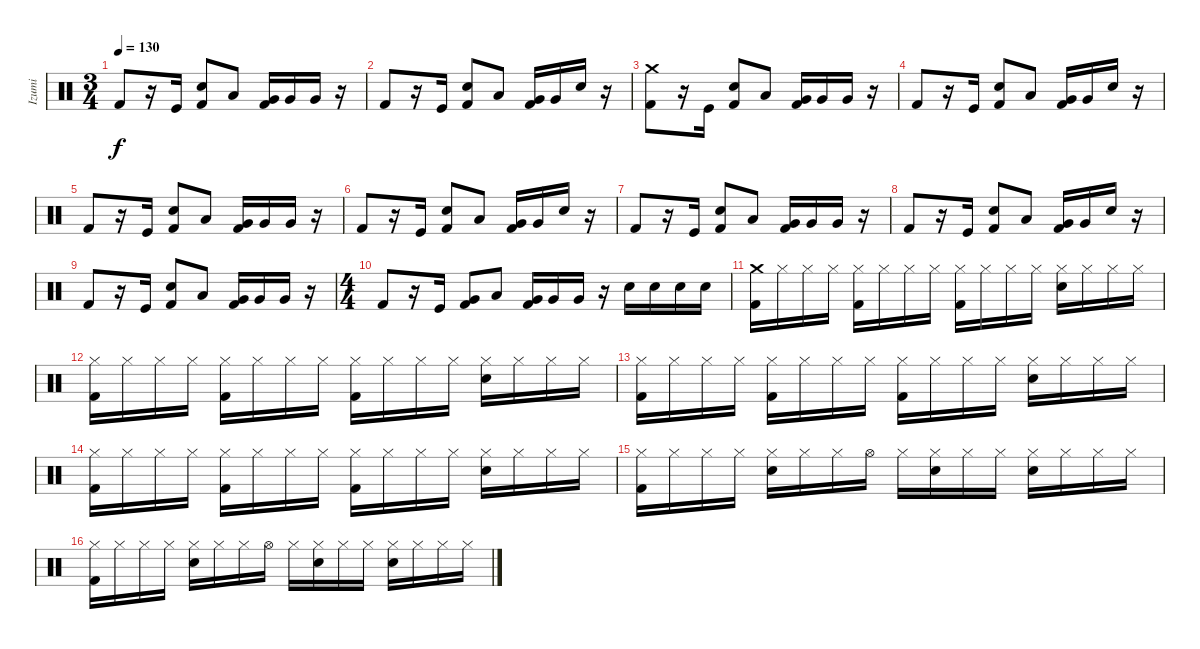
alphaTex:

\track ("Izumi" "Izumi") {instrument percussion}
\staff {score}
\articulation defaults
\ts (3 4)
\tempo 130
\clef neutral
\ks c "Kick (hit) 2".8{dy f}
r.16 "Kick (hit)".16 ("Kick (hit) 2" "Snare (hit) 2").8 "Low Tom (hit)".8 ("Kick (hit) 2" "Very Low Tom (hit)").16 "Very Low Tom (hit)".16 "Very Low Tom (hit)".16 r.16 |
"Kick (hit) 2".8 r.16 "Kick (hit)".16 ("Kick (hit) 2" "Snare (hit) 2").8 "Low Tom (hit)".8 ("Kick (hit) 2" "Very Low Tom (hit)").16 "Very Low Tom (hit)".16 "Snare (hit) 2".16 r.16 |
("Kick (hit) 2" "Crash medium (hit)").8 r.16 "Kick (hit)".16 ("Kick (hit) 2" "Snare (hit) 2").8 "Low Tom (hit)".8 ("Kick (hit) 2" "Very Low Tom (hit)").16 "Very Low Tom (hit)".16 "Very Low Tom (hit)".16 r.16 |
"Kick (hit) 2".8 r.16 "Kick (hit)".16 ("Kick (hit) 2" "Snare (hit) 2").8 "Low Tom (hit)".8 ("Kick (hit) 2" "Very Low Tom (hit)").16 "Very Low Tom (hit)".16 "Snare (hit) 2".16 r.16 |
"Kick (hit) 2".8 r.16 "Kick (hit)".16 ("Kick (hit) 2" "Snare (hit) 2").8 "Low Tom (hit)".8 ("Kick (hit) 2" "Very Low Tom (hit)").16 "Very Low Tom (hit)".16 "Very Low Tom (hit)".16 r.16 |
"Kick (hit) 2".8 r.16 "Kick (hit)".16 ("Kick (hit) 2" "Snare (hit) 2").8 "Low Tom (hit)".8 ("Kick (hit) 2" "Very Low Tom (hit)").16 "Very Low Tom (hit)".16 "Snare (hit) 2".16 r.16 |
"Kick (hit) 2".8 r.16 "Kick (hit)".16 ("Kick (hit) 2" "Snare (hit) 2").8 "Low Tom (hit)".8 ("Kick (hit) 2" "Very Low Tom (hit)").16 "Very Low Tom (hit)".16 "Very Low Tom (hit)".16 r.16 |
"Kick (hit) 2".8 r.16 "Kick (hit)".16 ("Kick (hit) 2" "Snare (hit) 2").8 "Low Tom (hit)".8 ("Kick (hit) 2" "Very Low Tom (hit)").16 "Very Low Tom (hit)".16 "Snare (hit) 2".16 r.16 |
"Kick (hit) 2".8 r.16 "Kick (hit)".16 ("Kick (hit) 2" "Snare (hit) 2").8 "Low Tom (hit)".8 ("Kick (hit) 2" "Very Low Tom (hit)").16 "Very Low Tom (hit)".16 "Very Low Tom (hit)".16 r.16 |
\ts (4 4)
"Kick (hit) 2".8 r.16 "Kick (hit)".16 ("Kick (hit) 2" "Very Low Tom (hit)").8 "Low Tom (hit)".8 ("Kick (hit) 2" "Very Low Tom (hit)").16 "Very Low Tom (hit)".16 "Very Low Tom (hit)".16 r.16 "Snare (hit) 2".16 "Snare (hit) 2".16 "Snare (hit) 2".16 "Snare (hit) 2".16 |
("Kick (hit) 2" "Crash medium (hit)").16 "Hi-Hat (closed)".16 "Hi-Hat (closed)".16 "Hi-Hat (closed)".16 ("Kick (hit) 2" "Hi-Hat (closed)").16 "Hi-Hat (closed)".16 "Hi-Hat (closed)".16 "Hi-Hat (closed)".16 ("Kick (hit) 2" "Hi-Hat (closed)").16 "Hi-Hat (closed)".16 "Hi-Hat (closed)".16 "Hi-Hat (closed)".16 ("Snare (hit) 2" "Hi-Hat (closed)").16 "Hi-Hat (closed)".16 "Hi-Hat (closed)".16 "Hi-Hat (closed)".16 |
("Kick (hit) 2" "Hi-Hat (closed)").16 "Hi-Hat (closed)".16 "Hi-Hat (closed)".16 "Hi-Hat (closed)".16 ("Kick (hit) 2" "Hi-Hat (closed)").16 "Hi-Hat (closed)".16 "Hi-Hat (closed)".16 "Hi-Hat (closed)".16 ("Kick (hit) 2" "Hi-Hat (closed)").16 "Hi-Hat (closed)".16 "Hi-Hat (closed)".16 "Hi-Hat (closed)".16 ("Snare (hit) 2" "Hi-Hat (closed)").16 "Hi-Hat (closed)".16 "Hi-Hat (closed)".16 "Hi-Hat (closed)".16 |
("Kick (hit) 2" "Hi-Hat (closed)").16 "Hi-Hat (closed)".16 "Hi-Hat (closed)".16 "Hi-Hat (closed)".16 ("Kick (hit) 2" "Hi-Hat (closed)").16 "Hi-Hat (closed)".16 "Hi-Hat (closed)".16 "Hi-Hat (closed)".16 ("Kick (hit) 2" "Hi-Hat (closed)").16 "Hi-Hat (closed)".16 "Hi-Hat (closed)".16 "Hi-Hat (closed)".16 ("Snare (hit) 2" "Hi-Hat (closed)").16 "Hi-Hat (closed)".16 "Hi-Hat (closed)".16 "Hi-Hat (closed)".16 |
("Kick (hit) 2" "Hi-Hat (closed)").16 "Hi-Hat (closed)".16 "Hi-Hat (closed)".16 "Hi-Hat (closed)".16 ("Kick (hit) 2" "Hi-Hat (closed)").16 "Hi-Hat (closed)".16 "Hi-Hat (closed)".16 "Hi-Hat (closed)".16 ("Kick (hit) 2" "Hi-Hat (closed)").16 "Hi-Hat (closed)".16 "Hi-Hat (closed)".16 "Hi-Hat (closed)".16 ("Snare (hit) 2" "Hi-Hat (closed)").16 "Hi-Hat (closed)".16 "Hi-Hat (closed)".16 "Hi-Hat (closed)".16 |
("Kick (hit) 2" "Hi-Hat (closed)").16 "Hi-Hat (closed)".16 "Hi-Hat (closed)".16 "Hi-Hat (closed)".16 ("Snare (hit) 2" "Hi-Hat (closed)").16 "Hi-Hat (closed)".16 "Hi-Hat (closed)".16 "Hi-Hat (open)".16 "Hi-Hat (closed)".16 ("Snare (hit) 2" "Hi-Hat (closed)").16 "Hi-Hat (closed)".16 "Hi-Hat (closed)".16 ("Snare (hit) 2" "Hi-Hat (closed)").16 "Hi-Hat (closed)".16 "Hi-Hat (closed)".16 "Hi-Hat (closed)".16 |
("Kick (hit) 2" "Hi-Hat (closed)").16 "Hi-Hat (closed)".16 "Hi-Hat (closed)".16 "Hi-Hat (closed)".16 ("Snare (hit) 2" "Hi-Hat (closed)").16 "Hi-Hat (closed)".16 "Hi-Hat (closed)".16 "Hi-Hat (open)".16 "Hi-Hat (closed)".16 ("Snare (hit) 2" "Hi-Hat (closed)").16 "Hi-Hat (closed)".16 "Hi-Hat (closed)".16 ("Snare (hit) 2" "Hi-Hat (closed)").16 "Hi-Hat (closed)".16 "Hi-Hat (closed)".16 "Hi-Hat (closed)".16
